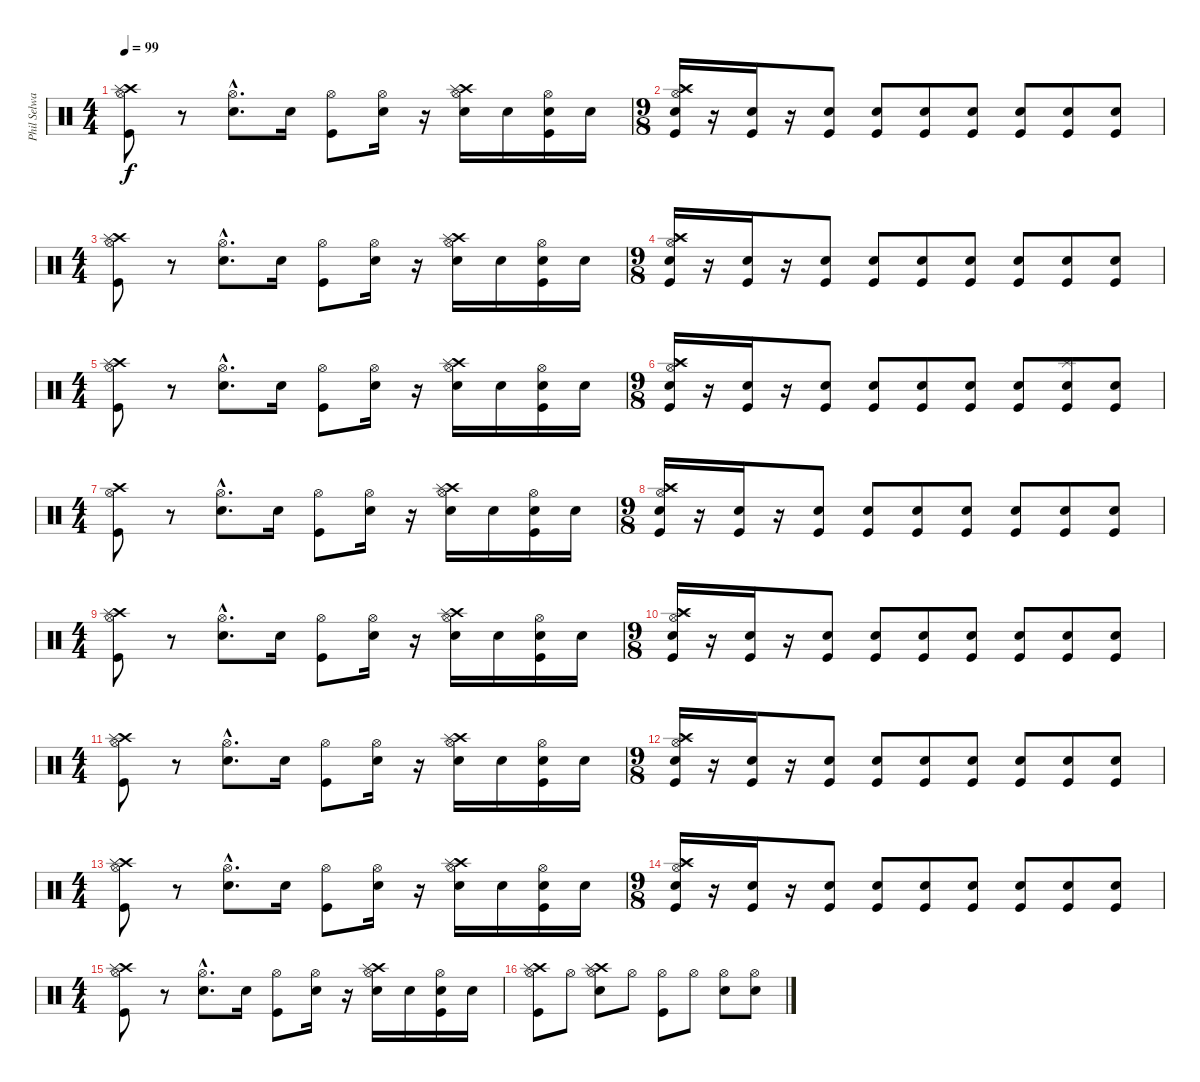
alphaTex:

\track ("Phil Selway" "Phil Selwa") {instrument percussion}
\staff {score}
\articulation defaults
\ts (4 4)
\tempo 99
\clef neutral
\ks c
("Kick (hit)" "Hi-Hat (open)" "Crash high (hit)" "Splash (hit)").8{dy f} r.8 ("Snare (hit) 2"{hac} "Hi-Hat (open)"{hac}).8{d} "Snare (hit) 2".16 ("Kick (hit)" "Hi-Hat (open)").8 ("Snare (hit) 2" "Hi-Hat (open)").16 r.16 ("Snare (hit) 2" "Hi-Hat (open)" "Crash high (hit)" "Splash (hit)").16 "Snare (hit) 2".16 ("Kick (hit)" "Snare (hit) 2" "Hi-Hat (open)").16 "Snare (hit) 2".16 |
\ts (9 8)
("Kick (hit)" "Snare (hit) 2" "Hi-Hat (open)" "Crash high (hit)" "Splash (hit)").16 r.16 ("Kick (hit)" "Snare (hit) 2").16 r.16 ("Kick (hit)" "Snare (hit) 2").8 ("Kick (hit)" "Snare (hit) 2").8 ("Kick (hit)" "Snare (hit) 2").8 ("Kick (hit)" "Snare (hit) 2").8 ("Kick (hit)" "Snare (hit) 2").8 ("Kick (hit)" "Snare (hit) 2").8 ("Kick (hit)" "Snare (hit) 2").8 |
\ts (4 4)
("Kick (hit)" "Hi-Hat (open)" "Crash high (hit)" "Splash (hit)").8 r.8 ("Snare (hit) 2"{hac} "Hi-Hat (open)"{hac}).8{d} "Snare (hit) 2".16 ("Kick (hit)" "Hi-Hat (open)").8 ("Snare (hit) 2" "Hi-Hat (open)").16 r.16 ("Snare (hit) 2" "Hi-Hat (open)" "Crash high (hit)" "Splash (hit)").16 "Snare (hit) 2".16 ("Kick (hit)" "Snare (hit) 2" "Hi-Hat (open)").16 "Snare (hit) 2".16 |
\ts (9 8)
("Kick (hit)" "Snare (hit) 2" "Hi-Hat (open)" "Crash high (hit)" "Splash (hit)").16 r.16 ("Kick (hit)" "Snare (hit) 2").16 r.16 ("Kick (hit)" "Snare (hit) 2").8 ("Kick (hit)" "Snare (hit) 2").8 ("Kick (hit)" "Snare (hit) 2").8 ("Kick (hit)" "Snare (hit) 2").8 ("Kick (hit)" "Snare (hit) 2").8 ("Kick (hit)" "Snare (hit) 2").8 ("Kick (hit)" "Snare (hit) 2").8 |
\ts (4 4)
("Kick (hit)" "Hi-Hat (open)" "Crash high (hit)" "Splash (hit)").8 r.8 ("Snare (hit) 2"{hac} "Hi-Hat (open)"{hac}).8{d} "Snare (hit) 2".16 ("Kick (hit)" "Hi-Hat (open)").8 ("Snare (hit) 2" "Hi-Hat (open)").16 r.16 ("Snare (hit) 2" "Hi-Hat (open)" "Crash high (hit)" "Splash (hit)").16 "Snare (hit) 2".16 ("Kick (hit)" "Snare (hit) 2" "Hi-Hat (open)").16 "Snare (hit) 2".16 |
\ts (9 8)
("Kick (hit)" "Snare (hit) 2" "Hi-Hat (open)" "Crash high (hit)" "Splash (hit)").16 r.16 ("Kick (hit)" "Snare (hit) 2").16 r.16 ("Kick (hit)" "Snare (hit) 2").8 ("Kick (hit)" "Snare (hit) 2").8 ("Kick (hit)" "Snare (hit) 2").8 ("Kick (hit)" "Snare (hit) 2").8 ("Kick (hit)" "Snare (hit) 2").8 ("Kick (hit)" "Snare (hit) 2" "Splash (hit)").8 ("Kick (hit)" "Snare (hit) 2").8 |
\ts (4 4)
("Kick (hit)" "Hi-Hat (open)" "Crash high (hit)").8 r.8 ("Snare (hit) 2"{hac} "Hi-Hat (open)"{hac}).8{d} "Snare (hit) 2".16 ("Kick (hit)" "Hi-Hat (open)").8 ("Snare (hit) 2" "Hi-Hat (open)").16 r.16 ("Snare (hit) 2" "Hi-Hat (open)" "Crash high (hit)" "Splash (hit)").16 "Snare (hit) 2".16 ("Kick (hit)" "Snare (hit) 2" "Hi-Hat (open)").16 "Snare (hit) 2".16 |
\ts (9 8)
("Kick (hit)" "Snare (hit) 2" "Hi-Hat (open)" "Crash high (hit)" "Splash (hit)").16 r.16 ("Kick (hit)" "Snare (hit) 2").16 r.16 ("Kick (hit)" "Snare (hit) 2").8 ("Kick (hit)" "Snare (hit) 2").8 ("Kick (hit)" "Snare (hit) 2").8 ("Kick (hit)" "Snare (hit) 2").8 ("Kick (hit)" "Snare (hit) 2").8 ("Kick (hit)" "Snare (hit) 2").8 ("Kick (hit)" "Snare (hit) 2").8 |
\ts (4 4)
("Kick (hit)" "Hi-Hat (open)" "Crash high (hit)" "Splash (hit)").8 r.8 ("Snare (hit) 2"{hac} "Hi-Hat (open)"{hac}).8{d} "Snare (hit) 2".16 ("Kick (hit)" "Hi-Hat (open)").8 ("Snare (hit) 2" "Hi-Hat (open)").16 r.16 ("Snare (hit) 2" "Hi-Hat (open)" "Crash high (hit)" "Splash (hit)").16 "Snare (hit) 2".16 ("Kick (hit)" "Snare (hit) 2" "Hi-Hat (open)").16 "Snare (hit) 2".16 |
\ts (9 8)
("Kick (hit)" "Snare (hit) 2" "Hi-Hat (open)" "Crash high (hit)" "Splash (hit)").16 r.16 ("Kick (hit)" "Snare (hit) 2").16 r.16 ("Kick (hit)" "Snare (hit) 2").8 ("Kick (hit)" "Snare (hit) 2").8 ("Kick (hit)" "Snare (hit) 2").8 ("Kick (hit)" "Snare (hit) 2").8 ("Kick (hit)" "Snare (hit) 2").8 ("Kick (hit)" "Snare (hit) 2").8 ("Kick (hit)" "Snare (hit) 2").8 |
\ts (4 4)
("Kick (hit)" "Hi-Hat (open)" "Crash high (hit)" "Splash (hit)").8 r.8 ("Snare (hit) 2"{hac} "Hi-Hat (open)"{hac}).8{d} "Snare (hit) 2".16 ("Kick (hit)" "Hi-Hat (open)").8 ("Snare (hit) 2" "Hi-Hat (open)").16 r.16 ("Snare (hit) 2" "Hi-Hat (open)" "Crash high (hit)" "Splash (hit)").16 "Snare (hit) 2".16 ("Kick (hit)" "Snare (hit) 2" "Hi-Hat (open)").16 "Snare (hit) 2".16 |
\ts (9 8)
("Kick (hit)" "Snare (hit) 2" "Hi-Hat (open)" "Crash high (hit)" "Splash (hit)").16 r.16 ("Kick (hit)" "Snare (hit) 2").16 r.16 ("Kick (hit)" "Snare (hit) 2").8 ("Kick (hit)" "Snare (hit) 2").8 ("Kick (hit)" "Snare (hit) 2").8 ("Kick (hit)" "Snare (hit) 2").8 ("Kick (hit)" "Snare (hit) 2").8 ("Kick (hit)" "Snare (hit) 2").8 ("Kick (hit)" "Snare (hit) 2").8 |
\ts (4 4)
("Kick (hit)" "Hi-Hat (open)" "Crash high (hit)" "Splash (hit)").8 r.8 ("Snare (hit) 2"{hac} "Hi-Hat (open)"{hac}).8{d} "Snare (hit) 2".16 ("Kick (hit)" "Hi-Hat (open)").8 ("Snare (hit) 2" "Hi-Hat (open)").16 r.16 ("Snare (hit) 2" "Hi-Hat (open)" "Crash high (hit)" "Splash (hit)").16 "Snare (hit) 2".16 ("Kick (hit)" "Snare (hit) 2" "Hi-Hat (open)").16 "Snare (hit) 2".16 |
\ts (9 8)
("Kick (hit)" "Snare (hit) 2" "Hi-Hat (open)" "Crash high (hit)" "Splash (hit)").16 r.16 ("Kick (hit)" "Snare (hit) 2").16 r.16 ("Kick (hit)" "Snare (hit) 2").8 ("Kick (hit)" "Snare (hit) 2").8 ("Kick (hit)" "Snare (hit) 2").8 ("Kick (hit)" "Snare (hit) 2").8 ("Kick (hit)" "Snare (hit) 2").8 ("Kick (hit)" "Snare (hit) 2").8 ("Kick (hit)" "Snare (hit) 2").8 |
\ts (4 4)
("Kick (hit)" "Hi-Hat (open)" "Crash high (hit)" "Splash (hit)").8 r.8 ("Snare (hit) 2"{hac} "Hi-Hat (open)"{hac}).8{d} "Snare (hit) 2".16 ("Kick (hit)" "Hi-Hat (open)").8 ("Snare (hit) 2" "Hi-Hat (open)").16 r.16 ("Snare (hit) 2" "Hi-Hat (open)" "Crash high (hit)" "Splash (hit)").16 "Snare (hit) 2".16 ("Kick (hit)" "Snare (hit) 2" "Hi-Hat (open)").16 "Snare (hit) 2".16 |
("Kick (hit)" "Hi-Hat (open)" "Crash high (hit)" "Splash (hit)").8 "Hi-Hat (open)".8 ("Snare (hit) 2" "Hi-Hat (open)" "Crash high (hit)" "Splash (hit)").8 "Hi-Hat (open)".8 ("Kick (hit)" "Hi-Hat (open)").8 "Hi-Hat (open)".8 ("Snare (hit) 2" "Hi-Hat (open)").8 ("Snare (hit) 2" "Hi-Hat (open)").8
